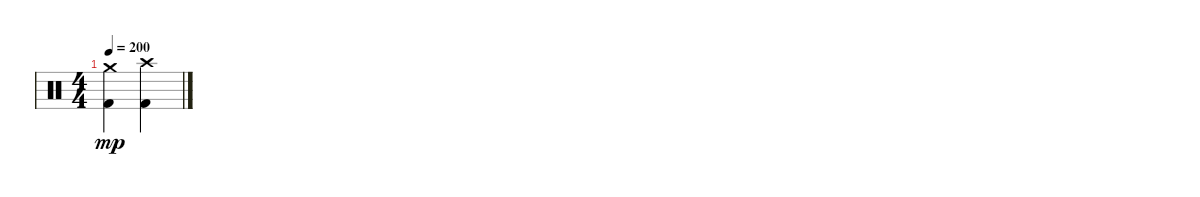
\track "" {instrument percussion}
\staff {score}
\articulation defaults
\ts (4 4)
\tempo 200
\clef neutral
\ks c
("Kick (hit) 2" "Crash medium (hit)").4{dy mp} ("Kick (hit) 2" "Crash high (hit)").4
